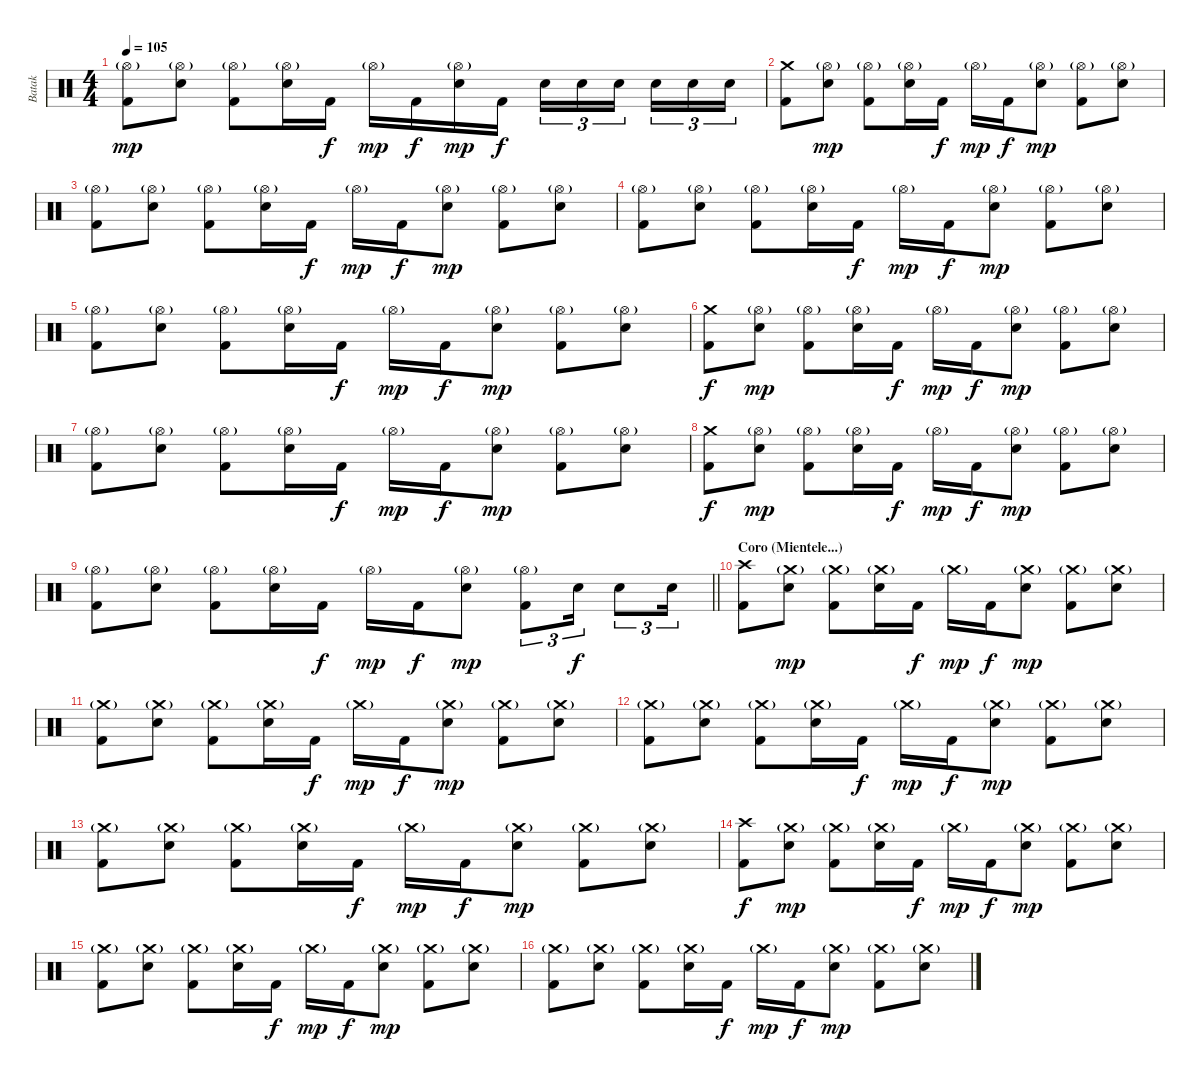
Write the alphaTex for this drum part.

\track ("Batak" "Batak") {instrument percussion bank 7}
\staff {score}
\articulation defaults
\ts (4 4)
\tempo 105
\clef neutral
\ks c
("Hi-Hat (open)"{g} "Kick (hit) 2").8{dy mp} ("Hi-Hat (open)"{g} "Electric Snare (hit)").8 ("Hi-Hat (open)"{g} "Kick (hit) 2").8 ("Hi-Hat (open)"{g} "Electric Snare (hit)").16 "Kick (hit) 2".16{dy f} "Hi-Hat (open)"{g}.16{dy mp} "Kick (hit) 2".16{dy f} ("Hi-Hat (open)"{g} "Electric Snare (hit)").16{dy mp} "Kick (hit) 2".16{dy f} "Electric Snare (hit)".16{tu (3 2)} "Electric Snare (hit)".16{tu (3 2)} "Electric Snare (hit)".16{tu (3 2) beam splitsecondary} "Electric Snare (hit)".16{tu (3 2)} "Electric Snare (hit)".16{tu (3 2)} "Electric Snare (hit)".16{tu (3 2)} |
("Crash medium (hit)" "Kick (hit) 2").8 ("Hi-Hat (open)"{g} "Electric Snare (hit)").8{dy mp} ("Hi-Hat (open)"{g} "Kick (hit) 2").8 ("Hi-Hat (open)"{g} "Electric Snare (hit)").16 "Kick (hit) 2".16{dy f} "Hi-Hat (open)"{g}.16{dy mp} "Kick (hit) 2".16{dy f} ("Hi-Hat (open)"{g} "Electric Snare (hit)").8{dy mp} ("Hi-Hat (open)"{g} "Kick (hit) 2").8 ("Hi-Hat (open)"{g} "Electric Snare (hit)").8 |
("Hi-Hat (open)"{g} "Kick (hit) 2").8 ("Hi-Hat (open)"{g} "Electric Snare (hit)").8 ("Hi-Hat (open)"{g} "Kick (hit) 2").8 ("Hi-Hat (open)"{g} "Electric Snare (hit)").16 "Kick (hit) 2".16{dy f} "Hi-Hat (open)"{g}.16{dy mp} "Kick (hit) 2".16{dy f} ("Hi-Hat (open)"{g} "Electric Snare (hit)").8{dy mp} ("Hi-Hat (open)"{g} "Kick (hit) 2").8 ("Hi-Hat (open)"{g} "Electric Snare (hit)").8 |
("Hi-Hat (open)"{g} "Kick (hit) 2").8 ("Hi-Hat (open)"{g} "Electric Snare (hit)").8 ("Hi-Hat (open)"{g} "Kick (hit) 2").8 ("Hi-Hat (open)"{g} "Electric Snare (hit)").16 "Kick (hit) 2".16{dy f} "Hi-Hat (open)"{g}.16{dy mp} "Kick (hit) 2".16{dy f} ("Hi-Hat (open)"{g} "Electric Snare (hit)").8{dy mp} ("Hi-Hat (open)"{g} "Kick (hit) 2").8 ("Hi-Hat (open)"{g} "Electric Snare (hit)").8 |
("Hi-Hat (open)"{g} "Kick (hit) 2").8 ("Hi-Hat (open)"{g} "Electric Snare (hit)").8 ("Hi-Hat (open)"{g} "Kick (hit) 2").8 ("Hi-Hat (open)"{g} "Electric Snare (hit)").16 "Kick (hit) 2".16{dy f} "Hi-Hat (open)"{g}.16{dy mp} "Kick (hit) 2".16{dy f} ("Hi-Hat (open)"{g} "Electric Snare (hit)").8{dy mp} ("Hi-Hat (open)"{g} "Kick (hit) 2").8 ("Hi-Hat (open)"{g} "Electric Snare (hit)").8 |
("Crash medium (hit)" "Kick (hit) 2").8{dy f} ("Hi-Hat (open)"{g} "Electric Snare (hit)").8{dy mp} ("Hi-Hat (open)"{g} "Kick (hit) 2").8 ("Hi-Hat (open)"{g} "Electric Snare (hit)").16 "Kick (hit) 2".16{dy f} "Hi-Hat (open)"{g}.16{dy mp} "Kick (hit) 2".16{dy f} ("Hi-Hat (open)"{g} "Electric Snare (hit)").8{dy mp} ("Hi-Hat (open)"{g} "Kick (hit) 2").8 ("Hi-Hat (open)"{g} "Electric Snare (hit)").8 |
("Hi-Hat (open)"{g} "Kick (hit) 2").8 ("Hi-Hat (open)"{g} "Electric Snare (hit)").8 ("Hi-Hat (open)"{g} "Kick (hit) 2").8 ("Hi-Hat (open)"{g} "Electric Snare (hit)").16 "Kick (hit) 2".16{dy f} "Hi-Hat (open)"{g}.16{dy mp} "Kick (hit) 2".16{dy f} ("Hi-Hat (open)"{g} "Electric Snare (hit)").8{dy mp} ("Hi-Hat (open)"{g} "Kick (hit) 2").8 ("Hi-Hat (open)"{g} "Electric Snare (hit)").8 |
("Crash medium (hit)" "Kick (hit) 2").8{dy f} ("Hi-Hat (open)"{g} "Electric Snare (hit)").8{dy mp} ("Hi-Hat (open)"{g} "Kick (hit) 2").8 ("Hi-Hat (open)"{g} "Electric Snare (hit)").16 "Kick (hit) 2".16{dy f} "Hi-Hat (open)"{g}.16{dy mp} "Kick (hit) 2".16{dy f} ("Hi-Hat (open)"{g} "Electric Snare (hit)").8{dy mp} ("Hi-Hat (open)"{g} "Kick (hit) 2").8 ("Hi-Hat (open)"{g} "Electric Snare (hit)").8 |
\barLineRight lightlight
("Hi-Hat (open)"{g} "Kick (hit) 2").8 ("Hi-Hat (open)"{g} "Electric Snare (hit)").8 ("Hi-Hat (open)"{g} "Kick (hit) 2").8 ("Hi-Hat (open)"{g} "Electric Snare (hit)").16 "Kick (hit) 2".16{dy f} "Hi-Hat (open)"{g}.16{dy mp} "Kick (hit) 2".16{dy f} ("Hi-Hat (open)"{g} "Electric Snare (hit)").8{dy mp} ("Hi-Hat (open)"{g} "Kick (hit) 2").8{tu (3 2)} "Electric Snare (hit)".16{tu (3 2) dy f} "Electric Snare (hit)".8{tu (3 2)} "Electric Snare (hit)".16{tu (3 2)} |
\section ("" "Coro (Mientele...)")
("Crash high (hit)" "Kick (hit) 2").8 ("Crash medium (hit)"{g} "Electric Snare (hit)").8{dy mp} ("Crash medium (hit)"{g} "Kick (hit) 2").8 ("Crash medium (hit)"{g} "Electric Snare (hit)").16 "Kick (hit) 2".16{dy f} "Crash medium (hit)"{g}.16{dy mp} "Kick (hit) 2".16{dy f} ("Crash medium (hit)"{g} "Electric Snare (hit)").8{dy mp} ("Crash medium (hit)"{g} "Kick (hit) 2").8 ("Crash medium (hit)"{g} "Electric Snare (hit)").8 |
("Crash medium (hit)"{g} "Kick (hit) 2").8 ("Crash medium (hit)"{g} "Electric Snare (hit)").8 ("Crash medium (hit)"{g} "Kick (hit) 2").8 ("Crash medium (hit)"{g} "Electric Snare (hit)").16 "Kick (hit) 2".16{dy f} "Crash medium (hit)"{g}.16{dy mp} "Kick (hit) 2".16{dy f} ("Crash medium (hit)"{g} "Electric Snare (hit)").8{dy mp} ("Crash medium (hit)"{g} "Kick (hit) 2").8 ("Crash medium (hit)"{g} "Electric Snare (hit)").8 |
("Crash medium (hit)"{g} "Kick (hit) 2").8 ("Crash medium (hit)"{g} "Electric Snare (hit)").8 ("Crash medium (hit)"{g} "Kick (hit) 2").8 ("Crash medium (hit)"{g} "Electric Snare (hit)").16 "Kick (hit) 2".16{dy f} "Crash medium (hit)"{g}.16{dy mp} "Kick (hit) 2".16{dy f} ("Crash medium (hit)"{g} "Electric Snare (hit)").8{dy mp} ("Crash medium (hit)"{g} "Kick (hit) 2").8 ("Crash medium (hit)"{g} "Electric Snare (hit)").8 |
("Crash medium (hit)"{g} "Kick (hit) 2").8 ("Crash medium (hit)"{g} "Electric Snare (hit)").8 ("Crash medium (hit)"{g} "Kick (hit) 2").8 ("Crash medium (hit)"{g} "Electric Snare (hit)").16 "Kick (hit) 2".16{dy f} "Crash medium (hit)"{g}.16{dy mp} "Kick (hit) 2".16{dy f} ("Crash medium (hit)"{g} "Electric Snare (hit)").8{dy mp} ("Crash medium (hit)"{g} "Kick (hit) 2").8 ("Crash medium (hit)"{g} "Electric Snare (hit)").8 |
("Crash high (hit)" "Kick (hit) 2").8{dy f} ("Crash medium (hit)"{g} "Electric Snare (hit)").8{dy mp} ("Crash medium (hit)"{g} "Kick (hit) 2").8 ("Crash medium (hit)"{g} "Electric Snare (hit)").16 "Kick (hit) 2".16{dy f} "Crash medium (hit)"{g}.16{dy mp} "Kick (hit) 2".16{dy f} ("Crash medium (hit)"{g} "Electric Snare (hit)").8{dy mp} ("Crash medium (hit)"{g} "Kick (hit) 2").8 ("Crash medium (hit)"{g} "Electric Snare (hit)").8 |
("Crash medium (hit)"{g} "Kick (hit) 2").8 ("Crash medium (hit)"{g} "Electric Snare (hit)").8 ("Crash medium (hit)"{g} "Kick (hit) 2").8 ("Crash medium (hit)"{g} "Electric Snare (hit)").16 "Kick (hit) 2".16{dy f} "Crash medium (hit)"{g}.16{dy mp} "Kick (hit) 2".16{dy f} ("Crash medium (hit)"{g} "Electric Snare (hit)").8{dy mp} ("Crash medium (hit)"{g} "Kick (hit) 2").8 ("Crash medium (hit)"{g} "Electric Snare (hit)").8 |
("Crash medium (hit)"{g} "Kick (hit) 2").8 ("Crash medium (hit)"{g} "Electric Snare (hit)").8 ("Crash medium (hit)"{g} "Kick (hit) 2").8 ("Crash medium (hit)"{g} "Electric Snare (hit)").16 "Kick (hit) 2".16{dy f} "Crash medium (hit)"{g}.16{dy mp} "Kick (hit) 2".16{dy f} ("Crash medium (hit)"{g} "Electric Snare (hit)").8{dy mp} ("Crash medium (hit)"{g} "Kick (hit) 2").8 ("Crash medium (hit)"{g} "Electric Snare (hit)").8
